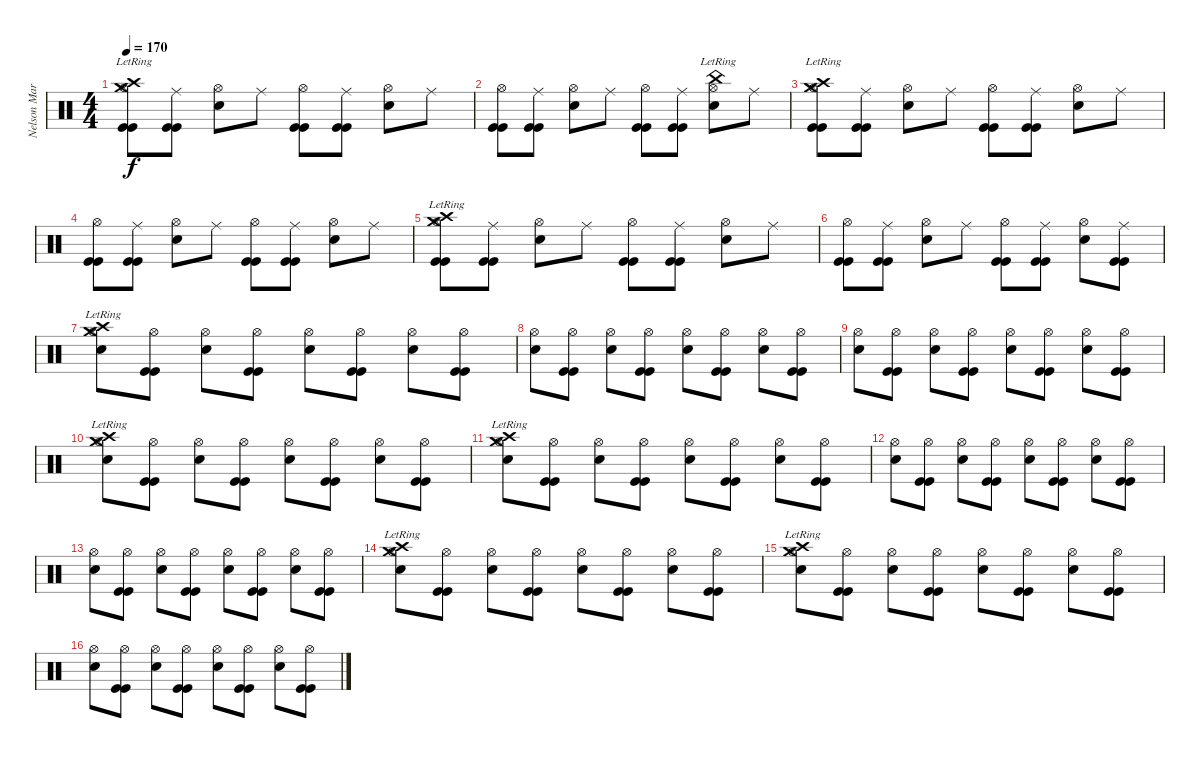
\track ("Nelson Maria" "Nelson Mar") {instrument percussion}
\staff {score}
\articulation defaults
\ts (4 4)
\tempo 170
\clef neutral
\ks c
("Crash high (hit)"{lr} "Crash medium (hit)"{lr} "Hi-Hat (open)" "Kick (hit)" "Kick (hit)").8{dy f} ("Ride (middle)" "Kick (hit)" "Kick (hit)").8 ("Snare (hit) 2" "Hi-Hat (open)").8 "Ride (middle)".8 ("Hi-Hat (open)" "Kick (hit)" "Kick (hit)").8 ("Ride (middle)" "Kick (hit)" "Kick (hit)").8 ("Snare (hit) 2" "Hi-Hat (open)").8 "Ride (middle)".8 |
("Hi-Hat (open)" "Kick (hit)" "Kick (hit)").8 ("Ride (middle)" "Kick (hit)" "Kick (hit)").8 ("Snare (hit) 2" "Hi-Hat (open)").8 "Ride (middle)".8 ("Hi-Hat (open)" "Kick (hit)" "Kick (hit)").8 ("Ride (middle)" "Kick (hit)" "Kick (hit)").8 ("China (hit)"{lr} "Snare (hit) 2" "Hi-Hat (open)").8 "Ride (middle)".8 |
("Crash high (hit)"{lr} "Crash medium (hit)"{lr} "Hi-Hat (open)" "Kick (hit)" "Kick (hit)").8 ("Ride (middle)" "Kick (hit)" "Kick (hit)").8 ("Snare (hit) 2" "Hi-Hat (open)").8 "Ride (middle)".8 ("Hi-Hat (open)" "Kick (hit)" "Kick (hit)").8 ("Ride (middle)" "Kick (hit)" "Kick (hit)").8 ("Snare (hit) 2" "Hi-Hat (open)").8 "Ride (middle)".8 |
("Hi-Hat (open)" "Kick (hit)" "Kick (hit)").8 ("Ride (middle)" "Kick (hit)" "Kick (hit)").8 ("Snare (hit) 2" "Hi-Hat (open)").8 "Ride (middle)".8 ("Hi-Hat (open)" "Kick (hit)" "Kick (hit)").8 ("Ride (middle)" "Kick (hit)" "Kick (hit)").8 ("Snare (hit) 2" "Hi-Hat (open)").8 "Ride (middle)".8 |
("Crash high (hit)"{lr} "Crash medium (hit)"{lr} "Hi-Hat (open)" "Kick (hit)" "Kick (hit)").8 ("Ride (middle)" "Kick (hit)" "Kick (hit)").8 ("Snare (hit) 2" "Hi-Hat (open)").8 "Ride (middle)".8 ("Hi-Hat (open)" "Kick (hit)" "Kick (hit)").8 ("Ride (middle)" "Kick (hit)" "Kick (hit)").8 ("Snare (hit) 2" "Hi-Hat (open)").8 "Ride (middle)".8 |
("Hi-Hat (open)" "Kick (hit)" "Kick (hit)").8 ("Ride (middle)" "Kick (hit)" "Kick (hit)").8 ("Snare (hit) 2" "Hi-Hat (open)").8 "Ride (middle)".8 ("Hi-Hat (open)" "Kick (hit)" "Kick (hit)").8 ("Ride (middle)" "Kick (hit)" "Kick (hit)").8 ("Snare (hit) 2" "Hi-Hat (open)").8 ("Ride (middle)" "Kick (hit)" "Kick (hit)").8 |
("Crash high (hit)"{lr} "Crash medium (hit)"{lr} "Snare (hit) 2" "Hi-Hat (open)").8 ("Hi-Hat (open)" "Kick (hit)" "Kick (hit)").8 ("Snare (hit) 2" "Hi-Hat (open)").8 ("Hi-Hat (open)" "Kick (hit)" "Kick (hit)").8 ("Snare (hit) 2" "Hi-Hat (open)").8 ("Hi-Hat (open)" "Kick (hit)" "Kick (hit)").8 ("Snare (hit) 2" "Hi-Hat (open)").8 ("Hi-Hat (open)" "Kick (hit)" "Kick (hit)").8 |
("Snare (hit) 2" "Hi-Hat (open)").8 ("Hi-Hat (open)" "Kick (hit)" "Kick (hit)").8 ("Snare (hit) 2" "Hi-Hat (open)").8 ("Hi-Hat (open)" "Kick (hit)" "Kick (hit)").8 ("Snare (hit) 2" "Hi-Hat (open)").8 ("Hi-Hat (open)" "Kick (hit)" "Kick (hit)").8 ("Snare (hit) 2" "Hi-Hat (open)").8 ("Hi-Hat (open)" "Kick (hit)" "Kick (hit)").8 |
("Snare (hit) 2" "Hi-Hat (open)").8 ("Hi-Hat (open)" "Kick (hit)" "Kick (hit)").8 ("Snare (hit) 2" "Hi-Hat (open)").8 ("Hi-Hat (open)" "Kick (hit)" "Kick (hit)").8 ("Snare (hit) 2" "Hi-Hat (open)").8 ("Hi-Hat (open)" "Kick (hit)" "Kick (hit)").8 ("Snare (hit) 2" "Hi-Hat (open)").8 ("Hi-Hat (open)" "Kick (hit)" "Kick (hit)").8 |
("Crash high (hit)"{lr} "Crash medium (hit)"{lr} "Snare (hit) 2" "Hi-Hat (open)").8 ("Hi-Hat (open)" "Kick (hit)" "Kick (hit)").8 ("Snare (hit) 2" "Hi-Hat (open)").8 ("Hi-Hat (open)" "Kick (hit)" "Kick (hit)").8 ("Snare (hit) 2" "Hi-Hat (open)").8 ("Hi-Hat (open)" "Kick (hit)" "Kick (hit)").8 ("Snare (hit) 2" "Hi-Hat (open)").8 ("Hi-Hat (open)" "Kick (hit)" "Kick (hit)").8 |
("Crash high (hit)"{lr} "Crash medium (hit)"{lr} "Snare (hit) 2" "Hi-Hat (open)").8 ("Hi-Hat (open)" "Kick (hit)" "Kick (hit)").8 ("Snare (hit) 2" "Hi-Hat (open)").8 ("Hi-Hat (open)" "Kick (hit)" "Kick (hit)").8 ("Snare (hit) 2" "Hi-Hat (open)").8 ("Hi-Hat (open)" "Kick (hit)" "Kick (hit)").8 ("Snare (hit) 2" "Hi-Hat (open)").8 ("Hi-Hat (open)" "Kick (hit)" "Kick (hit)").8 |
("Snare (hit) 2" "Hi-Hat (open)").8 ("Hi-Hat (open)" "Kick (hit)" "Kick (hit)").8 ("Snare (hit) 2" "Hi-Hat (open)").8 ("Hi-Hat (open)" "Kick (hit)" "Kick (hit)").8 ("Snare (hit) 2" "Hi-Hat (open)").8 ("Hi-Hat (open)" "Kick (hit)" "Kick (hit)").8 ("Snare (hit) 2" "Hi-Hat (open)").8 ("Hi-Hat (open)" "Kick (hit)" "Kick (hit)").8 |
("Snare (hit) 2" "Hi-Hat (open)").8 ("Hi-Hat (open)" "Kick (hit)" "Kick (hit)").8 ("Snare (hit) 2" "Hi-Hat (open)").8 ("Hi-Hat (open)" "Kick (hit)" "Kick (hit)").8 ("Snare (hit) 2" "Hi-Hat (open)").8 ("Hi-Hat (open)" "Kick (hit)" "Kick (hit)").8 ("Snare (hit) 2" "Hi-Hat (open)").8 ("Hi-Hat (open)" "Kick (hit)" "Kick (hit)").8 |
("Crash high (hit)"{lr} "Crash medium (hit)"{lr} "Snare (hit) 2" "Hi-Hat (open)").8 ("Hi-Hat (open)" "Kick (hit)" "Kick (hit)").8 ("Snare (hit) 2" "Hi-Hat (open)").8 ("Hi-Hat (open)" "Kick (hit)" "Kick (hit)").8 ("Snare (hit) 2" "Hi-Hat (open)").8 ("Hi-Hat (open)" "Kick (hit)" "Kick (hit)").8 ("Snare (hit) 2" "Hi-Hat (open)").8 ("Hi-Hat (open)" "Kick (hit)" "Kick (hit)").8 |
("Crash high (hit)"{lr} "Crash medium (hit)"{lr} "Snare (hit) 2" "Hi-Hat (open)").8 ("Hi-Hat (open)" "Kick (hit)" "Kick (hit)").8 ("Snare (hit) 2" "Hi-Hat (open)").8 ("Hi-Hat (open)" "Kick (hit)" "Kick (hit)").8 ("Snare (hit) 2" "Hi-Hat (open)").8 ("Hi-Hat (open)" "Kick (hit)" "Kick (hit)").8 ("Snare (hit) 2" "Hi-Hat (open)").8 ("Hi-Hat (open)" "Kick (hit)" "Kick (hit)").8 |
("Snare (hit) 2" "Hi-Hat (open)").8 ("Hi-Hat (open)" "Kick (hit)" "Kick (hit)").8 ("Snare (hit) 2" "Hi-Hat (open)").8 ("Hi-Hat (open)" "Kick (hit)" "Kick (hit)").8 ("Snare (hit) 2" "Hi-Hat (open)").8 ("Hi-Hat (open)" "Kick (hit)" "Kick (hit)").8 ("Snare (hit) 2" "Hi-Hat (open)").8 ("Hi-Hat (open)" "Kick (hit)" "Kick (hit)").8
